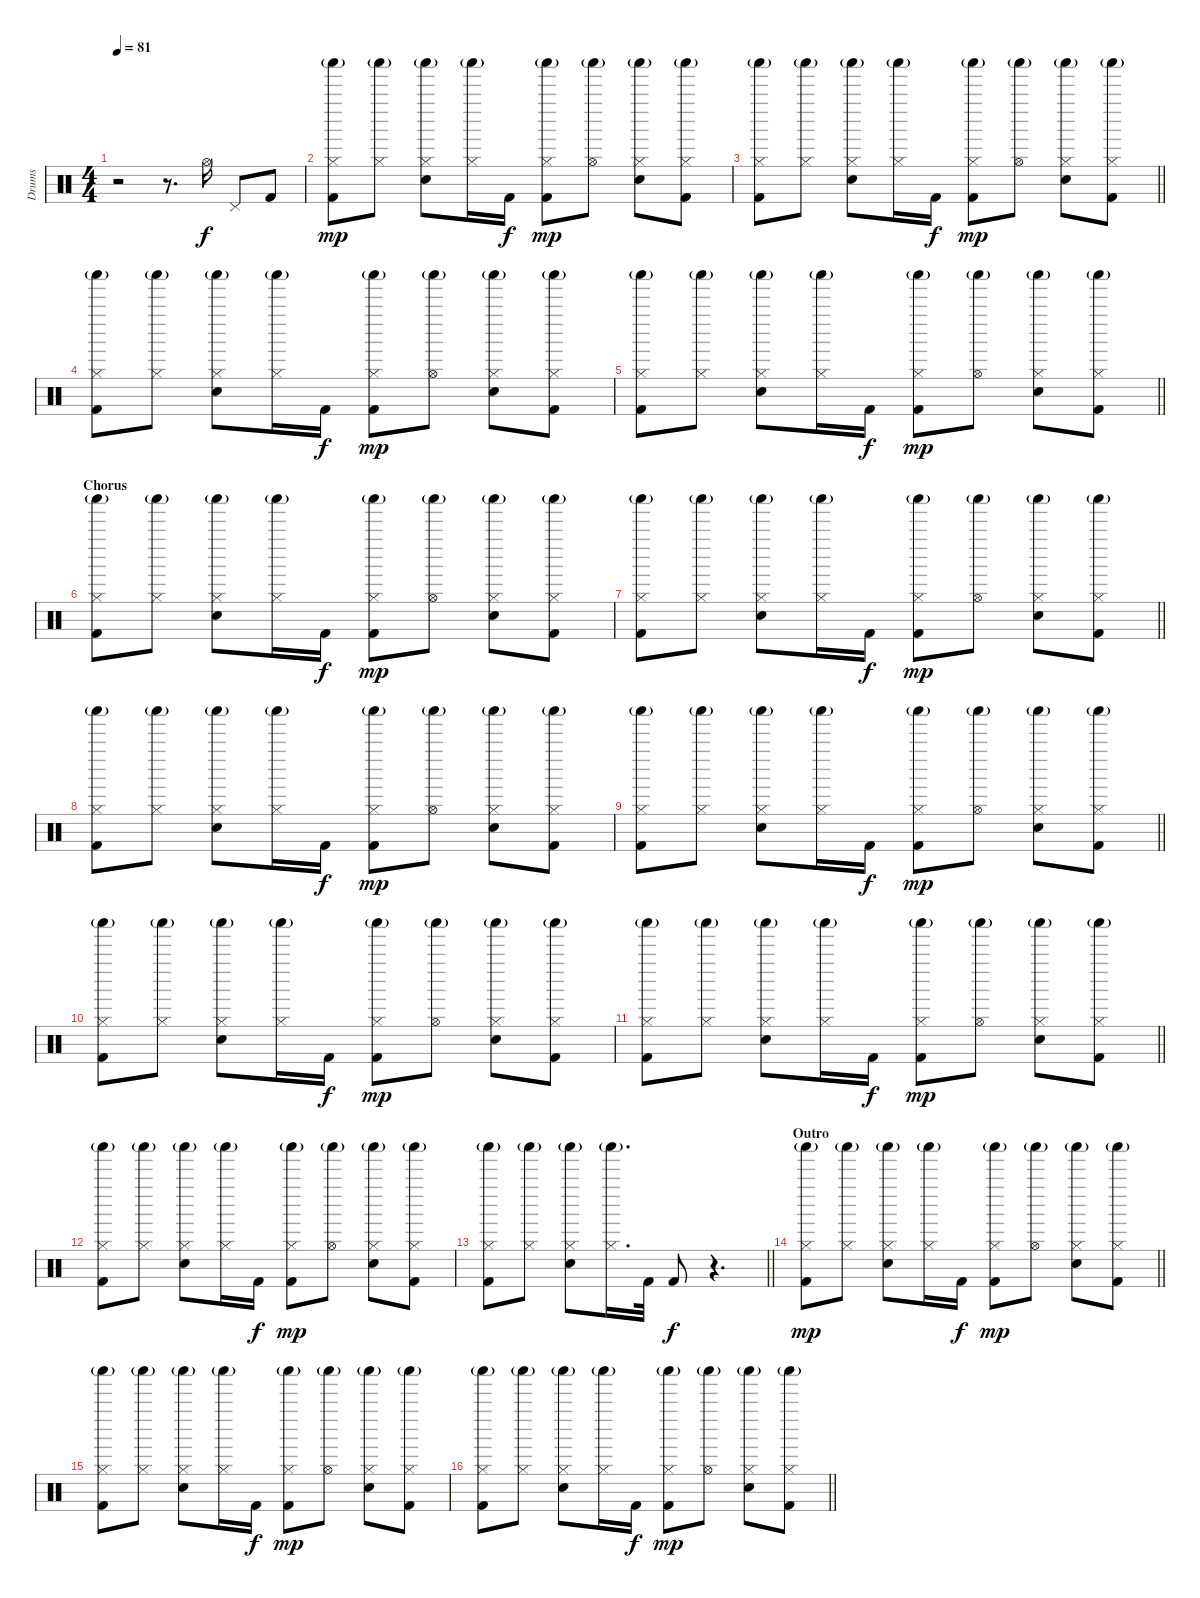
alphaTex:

\track ("Drums" "Drums") {instrument percussion}
\staff {score}
\articulation defaults
\ts (4 4)
\tempo 81
\clef neutral
\ks c
r.2{dy mp} r.8{d} "Hi-Hat (open)".16{dy f} "Pedal Hi-Hat (hit)".8 "Kick (hit) 2".8 |
("Hi-Hat (closed)" "Shaker (hit)"{g} "Kick (hit) 2").8{dy mp} ("Hi-Hat (closed)" "Shaker (hit)"{g}).8 ("Hi-Hat (closed)" "Shaker (hit)"{g} "Snare (hit) 2").8 ("Hi-Hat (closed)" "Shaker (hit)"{g}).16 "Kick (hit) 2".16{dy f} ("Hi-Hat (closed)" "Shaker (hit)"{g} "Kick (hit) 2").8{dy mp} ("Hi-Hat (open)" "Shaker (hit)"{g}).8 ("Hi-Hat (closed)" "Shaker (hit)"{g} "Snare (hit) 2").8 ("Hi-Hat (closed)" "Shaker (hit)"{g} "Kick (hit) 2").8 |
\barLineRight lightlight
("Hi-Hat (closed)" "Shaker (hit)"{g} "Kick (hit) 2").8 ("Hi-Hat (closed)" "Shaker (hit)"{g}).8 ("Hi-Hat (closed)" "Shaker (hit)"{g} "Snare (hit) 2").8 ("Hi-Hat (closed)" "Shaker (hit)"{g}).16 "Kick (hit) 2".16{dy f} ("Hi-Hat (closed)" "Shaker (hit)"{g} "Kick (hit) 2").8{dy mp} ("Hi-Hat (open)" "Shaker (hit)"{g}).8 ("Hi-Hat (closed)" "Shaker (hit)"{g} "Snare (hit) 2").8 ("Hi-Hat (closed)" "Shaker (hit)"{g} "Kick (hit) 2").8 |
("Hi-Hat (closed)" "Shaker (hit)"{g} "Kick (hit) 2").8 ("Hi-Hat (closed)" "Shaker (hit)"{g}).8 ("Hi-Hat (closed)" "Shaker (hit)"{g} "Snare (hit) 2").8 ("Hi-Hat (closed)" "Shaker (hit)"{g}).16 "Kick (hit) 2".16{dy f} ("Hi-Hat (closed)" "Shaker (hit)"{g} "Kick (hit) 2").8{dy mp} ("Hi-Hat (open)" "Shaker (hit)"{g}).8 ("Hi-Hat (closed)" "Shaker (hit)"{g} "Snare (hit) 2").8 ("Hi-Hat (closed)" "Shaker (hit)"{g} "Kick (hit) 2").8 |
\barLineRight lightlight
("Hi-Hat (closed)" "Shaker (hit)"{g} "Kick (hit) 2").8 ("Hi-Hat (closed)" "Shaker (hit)"{g}).8 ("Hi-Hat (closed)" "Shaker (hit)"{g} "Snare (hit) 2").8 ("Hi-Hat (closed)" "Shaker (hit)"{g}).16 "Kick (hit) 2".16{dy f} ("Hi-Hat (closed)" "Shaker (hit)"{g} "Kick (hit) 2").8{dy mp} ("Hi-Hat (open)" "Shaker (hit)"{g}).8 ("Hi-Hat (closed)" "Shaker (hit)"{g} "Snare (hit) 2").8 ("Hi-Hat (closed)" "Shaker (hit)"{g} "Kick (hit) 2").8 |
\section ("" "Chorus")
("Hi-Hat (closed)" "Shaker (hit)"{g} "Kick (hit) 2").8 ("Hi-Hat (closed)" "Shaker (hit)"{g}).8 ("Hi-Hat (closed)" "Shaker (hit)"{g} "Snare (hit) 2").8 ("Hi-Hat (closed)" "Shaker (hit)"{g}).16 "Kick (hit) 2".16{dy f} ("Hi-Hat (closed)" "Shaker (hit)"{g} "Kick (hit) 2").8{dy mp} ("Hi-Hat (open)" "Shaker (hit)"{g}).8 ("Hi-Hat (closed)" "Shaker (hit)"{g} "Snare (hit) 2").8 ("Hi-Hat (closed)" "Shaker (hit)"{g} "Kick (hit) 2").8 |
\barLineRight lightlight
("Hi-Hat (closed)" "Shaker (hit)"{g} "Kick (hit) 2").8 ("Hi-Hat (closed)" "Shaker (hit)"{g}).8 ("Hi-Hat (closed)" "Shaker (hit)"{g} "Snare (hit) 2").8 ("Hi-Hat (closed)" "Shaker (hit)"{g}).16 "Kick (hit) 2".16{dy f} ("Hi-Hat (closed)" "Shaker (hit)"{g} "Kick (hit) 2").8{dy mp} ("Hi-Hat (open)" "Shaker (hit)"{g}).8 ("Hi-Hat (closed)" "Shaker (hit)"{g} "Snare (hit) 2").8 ("Hi-Hat (closed)" "Shaker (hit)"{g} "Kick (hit) 2").8 |
("Hi-Hat (closed)" "Shaker (hit)"{g} "Kick (hit) 2").8 ("Hi-Hat (closed)" "Shaker (hit)"{g}).8 ("Hi-Hat (closed)" "Shaker (hit)"{g} "Snare (hit) 2").8 ("Hi-Hat (closed)" "Shaker (hit)"{g}).16 "Kick (hit) 2".16{dy f} ("Hi-Hat (closed)" "Shaker (hit)"{g} "Kick (hit) 2").8{dy mp} ("Hi-Hat (open)" "Shaker (hit)"{g}).8 ("Hi-Hat (closed)" "Shaker (hit)"{g} "Snare (hit) 2").8 ("Hi-Hat (closed)" "Shaker (hit)"{g} "Kick (hit) 2").8 |
\barLineRight lightlight
("Hi-Hat (closed)" "Shaker (hit)"{g} "Kick (hit) 2").8 ("Hi-Hat (closed)" "Shaker (hit)"{g}).8 ("Hi-Hat (closed)" "Shaker (hit)"{g} "Snare (hit) 2").8 ("Hi-Hat (closed)" "Shaker (hit)"{g}).16 "Kick (hit) 2".16{dy f} ("Hi-Hat (closed)" "Shaker (hit)"{g} "Kick (hit) 2").8{dy mp} ("Hi-Hat (open)" "Shaker (hit)"{g}).8 ("Hi-Hat (closed)" "Shaker (hit)"{g} "Snare (hit) 2").8 ("Hi-Hat (closed)" "Shaker (hit)"{g} "Kick (hit) 2").8 |
("Hi-Hat (closed)" "Shaker (hit)"{g} "Kick (hit) 2").8 ("Hi-Hat (closed)" "Shaker (hit)"{g}).8 ("Hi-Hat (closed)" "Shaker (hit)"{g} "Snare (hit) 2").8 ("Hi-Hat (closed)" "Shaker (hit)"{g}).16 "Kick (hit) 2".16{dy f} ("Hi-Hat (closed)" "Shaker (hit)"{g} "Kick (hit) 2").8{dy mp} ("Hi-Hat (open)" "Shaker (hit)"{g}).8 ("Hi-Hat (closed)" "Shaker (hit)"{g} "Snare (hit) 2").8 ("Hi-Hat (closed)" "Shaker (hit)"{g} "Kick (hit) 2").8 |
\barLineRight lightlight
("Hi-Hat (closed)" "Shaker (hit)"{g} "Kick (hit) 2").8 ("Hi-Hat (closed)" "Shaker (hit)"{g}).8 ("Hi-Hat (closed)" "Shaker (hit)"{g} "Snare (hit) 2").8 ("Hi-Hat (closed)" "Shaker (hit)"{g}).16 "Kick (hit) 2".16{dy f} ("Hi-Hat (closed)" "Shaker (hit)"{g} "Kick (hit) 2").8{dy mp} ("Hi-Hat (open)" "Shaker (hit)"{g}).8 ("Hi-Hat (closed)" "Shaker (hit)"{g} "Snare (hit) 2").8 ("Hi-Hat (closed)" "Shaker (hit)"{g} "Kick (hit) 2").8 |
("Hi-Hat (closed)" "Shaker (hit)"{g} "Kick (hit) 2").8 ("Hi-Hat (closed)" "Shaker (hit)"{g}).8 ("Hi-Hat (closed)" "Shaker (hit)"{g} "Snare (hit) 2").8 ("Hi-Hat (closed)" "Shaker (hit)"{g}).16 "Kick (hit) 2".16{dy f} ("Hi-Hat (closed)" "Shaker (hit)"{g} "Kick (hit) 2").8{dy mp} ("Hi-Hat (open)" "Shaker (hit)"{g}).8 ("Hi-Hat (closed)" "Shaker (hit)"{g} "Snare (hit) 2").8 ("Hi-Hat (closed)" "Shaker (hit)"{g} "Kick (hit) 2").8 |
\barLineRight lightlight
("Hi-Hat (closed)" "Shaker (hit)"{g} "Kick (hit) 2").8 ("Hi-Hat (closed)" "Shaker (hit)"{g}).8 ("Hi-Hat (closed)" "Shaker (hit)"{g} "Snare (hit) 2").8 ("Hi-Hat (closed)" "Shaker (hit)"{g}).16{d} "Kick (hit) 2".32 "Kick (hit) 2".8{dy f} r.4{d} |
\section ("" "Outro")
\barLineRight lightlight
("Hi-Hat (closed)" "Shaker (hit)"{g} "Kick (hit) 2").8{dy mp} ("Hi-Hat (closed)" "Shaker (hit)"{g}).8 ("Hi-Hat (closed)" "Shaker (hit)"{g} "Snare (hit) 2").8 ("Hi-Hat (closed)" "Shaker (hit)"{g}).16 "Kick (hit) 2".16{dy f} ("Hi-Hat (closed)" "Shaker (hit)"{g} "Kick (hit) 2").8{dy mp} ("Hi-Hat (open)" "Shaker (hit)"{g}).8 ("Hi-Hat (closed)" "Shaker (hit)"{g} "Snare (hit) 2").8 ("Hi-Hat (closed)" "Shaker (hit)"{g} "Kick (hit) 2").8 |
("Hi-Hat (closed)" "Shaker (hit)"{g} "Kick (hit) 2").8 ("Hi-Hat (closed)" "Shaker (hit)"{g}).8 ("Hi-Hat (closed)" "Shaker (hit)"{g} "Snare (hit) 2").8 ("Hi-Hat (closed)" "Shaker (hit)"{g}).16 "Kick (hit) 2".16{dy f} ("Hi-Hat (closed)" "Shaker (hit)"{g} "Kick (hit) 2").8{dy mp} ("Hi-Hat (open)" "Shaker (hit)"{g}).8 ("Hi-Hat (closed)" "Shaker (hit)"{g} "Snare (hit) 2").8 ("Hi-Hat (closed)" "Shaker (hit)"{g} "Kick (hit) 2").8 |
\barLineRight lightlight
("Hi-Hat (closed)" "Shaker (hit)"{g} "Kick (hit) 2").8 ("Hi-Hat (closed)" "Shaker (hit)"{g}).8 ("Hi-Hat (closed)" "Shaker (hit)"{g} "Snare (hit) 2").8 ("Hi-Hat (closed)" "Shaker (hit)"{g}).16 "Kick (hit) 2".16{dy f} ("Hi-Hat (closed)" "Shaker (hit)"{g} "Kick (hit) 2").8{dy mp} ("Hi-Hat (open)" "Shaker (hit)"{g}).8 ("Hi-Hat (closed)" "Shaker (hit)"{g} "Snare (hit) 2").8 ("Hi-Hat (closed)" "Shaker (hit)"{g} "Kick (hit) 2").8
